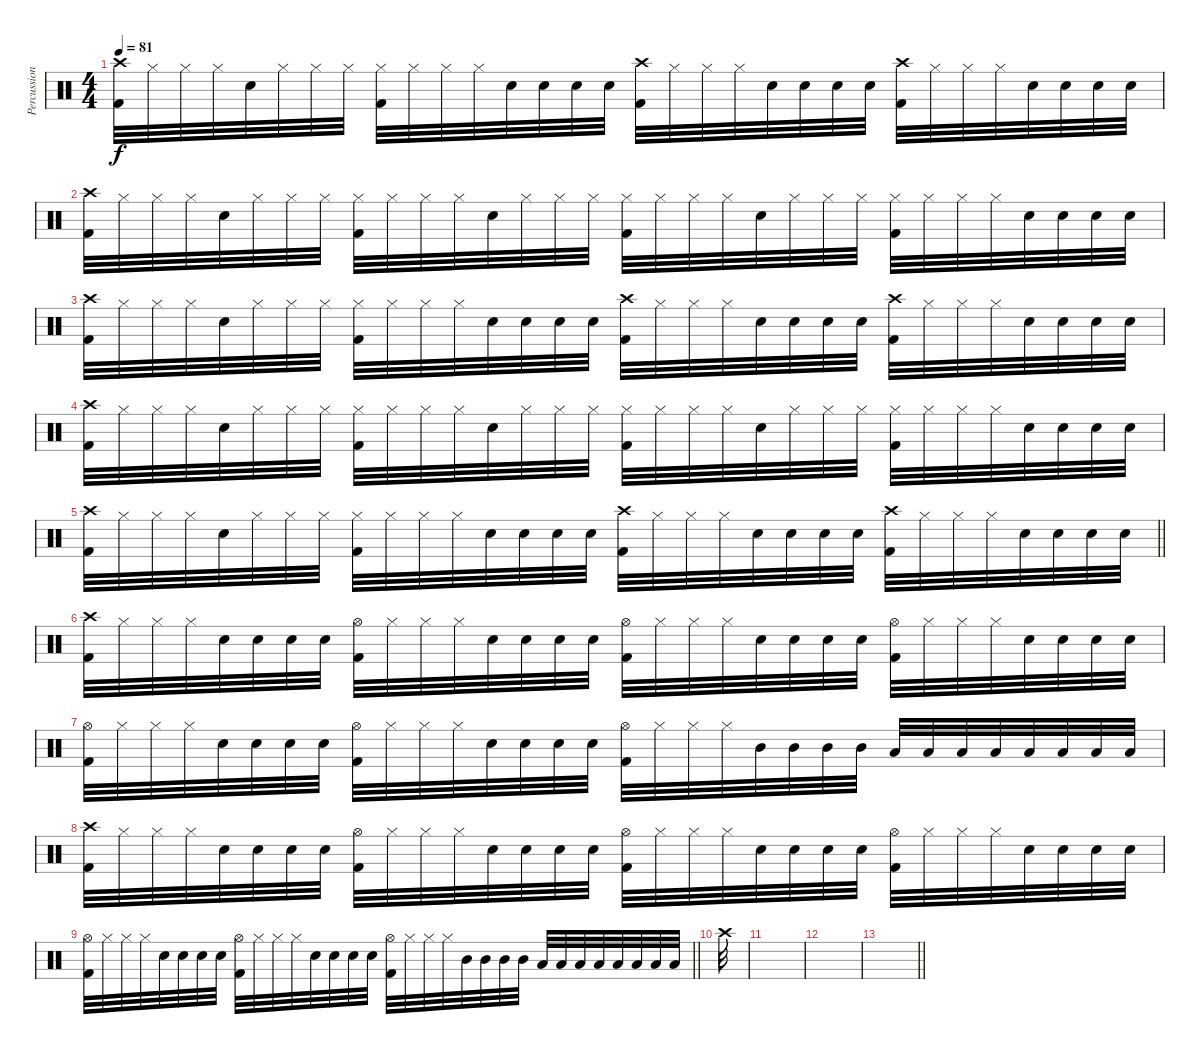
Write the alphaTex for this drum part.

\track ("Percussion" "Percussion") {instrument percussion}
\staff {score}
\articulation defaults
\ts (4 4)
\tempo 81
\clef neutral
\ks c
("Crash high (hit)" "Kick (hit) 2").32{dy f} "Hi-Hat (closed)".32 "Hi-Hat (closed)".32 "Hi-Hat (closed)".32 "Snare (hit) 2".32 "Hi-Hat (closed)".32 "Hi-Hat (closed)".32 "Hi-Hat (closed)".32 ("Hi-Hat (closed)" "Kick (hit) 2").32 "Hi-Hat (closed)".32 "Hi-Hat (closed)".32 "Hi-Hat (closed)".32 "Snare (hit) 2".32 "Snare (hit) 2".32 "Snare (hit) 2".32 "Snare (hit) 2".32 ("Crash high (hit)" "Kick (hit) 2").32 "Hi-Hat (closed)".32 "Hi-Hat (closed)".32 "Hi-Hat (closed)".32 "Snare (hit) 2".32 "Snare (hit) 2".32 "Snare (hit) 2".32 "Snare (hit) 2".32 ("Crash high (hit)" "Kick (hit) 2").32 "Hi-Hat (closed)".32 "Hi-Hat (closed)".32 "Hi-Hat (closed)".32 "Snare (hit) 2".32 "Snare (hit) 2".32 "Snare (hit) 2".32 "Snare (hit) 2".32 |
("Crash high (hit)" "Kick (hit) 2").32 "Hi-Hat (closed)".32 "Hi-Hat (closed)".32 "Hi-Hat (closed)".32 "Snare (hit) 2".32 "Hi-Hat (closed)".32 "Hi-Hat (closed)".32 "Hi-Hat (closed)".32 ("Hi-Hat (closed)" "Kick (hit) 2").32 "Hi-Hat (closed)".32 "Hi-Hat (closed)".32 "Hi-Hat (closed)".32 "Snare (hit) 2".32 "Hi-Hat (closed)".32 "Hi-Hat (closed)".32 "Hi-Hat (closed)".32 ("Hi-Hat (closed)" "Kick (hit) 2").32 "Hi-Hat (closed)".32 "Hi-Hat (closed)".32 "Hi-Hat (closed)".32 "Snare (hit) 2".32 "Hi-Hat (closed)".32 "Hi-Hat (closed)".32 "Hi-Hat (closed)".32 ("Hi-Hat (closed)" "Kick (hit) 2").32 "Hi-Hat (closed)".32 "Hi-Hat (closed)".32 "Hi-Hat (closed)".32 "Snare (hit) 2".32 "Snare (hit) 2".32 "Snare (hit) 2".32 "Snare (hit) 2".32 |
("Crash high (hit)" "Kick (hit) 2").32 "Hi-Hat (closed)".32 "Hi-Hat (closed)".32 "Hi-Hat (closed)".32 "Snare (hit) 2".32 "Hi-Hat (closed)".32 "Hi-Hat (closed)".32 "Hi-Hat (closed)".32 ("Hi-Hat (closed)" "Kick (hit) 2").32 "Hi-Hat (closed)".32 "Hi-Hat (closed)".32 "Hi-Hat (closed)".32 "Snare (hit) 2".32 "Snare (hit) 2".32 "Snare (hit) 2".32 "Snare (hit) 2".32 ("Crash high (hit)" "Kick (hit) 2").32 "Hi-Hat (closed)".32 "Hi-Hat (closed)".32 "Hi-Hat (closed)".32 "Snare (hit) 2".32 "Snare (hit) 2".32 "Snare (hit) 2".32 "Snare (hit) 2".32 ("Crash high (hit)" "Kick (hit) 2").32 "Hi-Hat (closed)".32 "Hi-Hat (closed)".32 "Hi-Hat (closed)".32 "Snare (hit) 2".32 "Snare (hit) 2".32 "Snare (hit) 2".32 "Snare (hit) 2".32 |
("Crash high (hit)" "Kick (hit) 2").32 "Hi-Hat (closed)".32 "Hi-Hat (closed)".32 "Hi-Hat (closed)".32 "Snare (hit) 2".32 "Hi-Hat (closed)".32 "Hi-Hat (closed)".32 "Hi-Hat (closed)".32 ("Hi-Hat (closed)" "Kick (hit) 2").32 "Hi-Hat (closed)".32 "Hi-Hat (closed)".32 "Hi-Hat (closed)".32 "Snare (hit) 2".32 "Hi-Hat (closed)".32 "Hi-Hat (closed)".32 "Hi-Hat (closed)".32 ("Hi-Hat (closed)" "Kick (hit) 2").32 "Hi-Hat (closed)".32 "Hi-Hat (closed)".32 "Hi-Hat (closed)".32 "Snare (hit) 2".32 "Hi-Hat (closed)".32 "Hi-Hat (closed)".32 "Hi-Hat (closed)".32 ("Hi-Hat (closed)" "Kick (hit) 2").32 "Hi-Hat (closed)".32 "Hi-Hat (closed)".32 "Hi-Hat (closed)".32 "Snare (hit) 2".32 "Snare (hit) 2".32 "Snare (hit) 2".32 "Snare (hit) 2".32 |
\barLineRight lightlight
("Crash high (hit)" "Kick (hit) 2").32 "Hi-Hat (closed)".32 "Hi-Hat (closed)".32 "Hi-Hat (closed)".32 "Snare (hit) 2".32 "Hi-Hat (closed)".32 "Hi-Hat (closed)".32 "Hi-Hat (closed)".32 ("Hi-Hat (closed)" "Kick (hit) 2").32 "Hi-Hat (closed)".32 "Hi-Hat (closed)".32 "Hi-Hat (closed)".32 "Snare (hit) 2".32 "Snare (hit) 2".32 "Snare (hit) 2".32 "Snare (hit) 2".32 ("Crash high (hit)" "Kick (hit) 2").32 "Hi-Hat (closed)".32 "Hi-Hat (closed)".32 "Hi-Hat (closed)".32 "Snare (hit) 2".32 "Snare (hit) 2".32 "Snare (hit) 2".32 "Snare (hit) 2".32 ("Crash high (hit)" "Kick (hit) 2").32 "Hi-Hat (closed)".32 "Hi-Hat (closed)".32 "Hi-Hat (closed)".32 "Snare (hit) 2".32 "Snare (hit) 2".32 "Snare (hit) 2".32 "Snare (hit) 2".32 |
("Crash high (hit)" "Kick (hit) 2").32 "Hi-Hat (closed)".32 "Hi-Hat (closed)".32 "Hi-Hat (closed)".32 "Snare (hit) 2".32 "Snare (hit) 2".32 "Snare (hit) 2".32 "Snare (hit) 2".32 ("Hi-Hat (open)" "Kick (hit) 2").32 "Hi-Hat (closed)".32 "Hi-Hat (closed)".32 "Hi-Hat (closed)".32 "Snare (hit) 2".32 "Snare (hit) 2".32 "Snare (hit) 2".32 "Snare (hit) 2".32 ("Hi-Hat (open)" "Kick (hit) 2").32 "Hi-Hat (closed)".32 "Hi-Hat (closed)".32 "Hi-Hat (closed)".32 "Snare (hit) 2".32 "Snare (hit) 2".32 "Snare (hit) 2".32 "Snare (hit) 2".32 ("Hi-Hat (open)" "Kick (hit) 2").32 "Hi-Hat (closed)".32 "Hi-Hat (closed)".32 "Hi-Hat (closed)".32 "Snare (hit) 2".32 "Snare (hit) 2".32 "Snare (hit) 2".32 "Snare (hit) 2".32 |
("Hi-Hat (open)" "Kick (hit) 2").32 "Hi-Hat (closed)".32 "Hi-Hat (closed)".32 "Hi-Hat (closed)".32 "Snare (hit) 2".32 "Snare (hit) 2".32 "Snare (hit) 2".32 "Snare (hit) 2".32 ("Hi-Hat (open)" "Kick (hit) 2").32 "Hi-Hat (closed)".32 "Hi-Hat (closed)".32 "Hi-Hat (closed)".32 "Snare (hit) 2".32 "Snare (hit) 2".32 "Snare (hit) 2".32 "Snare (hit) 2".32 ("Hi-Hat (open)" "Kick (hit) 2").32 "Hi-Hat (closed)".32 "Hi-Hat (closed)".32 "Hi-Hat (closed)".32 "Mid Tom (hit)".32 "Mid Tom (hit)".32 "Mid Tom (hit)".32 "Mid Tom (hit)".32 "Low Tom (hit)".32 "Low Tom (hit)".32 "Low Tom (hit)".32 "Low Tom (hit)".32 "Low Floor Tom (hit)".32 "Low Floor Tom (hit)".32 "Low Floor Tom (hit)".32 "Low Floor Tom (hit)".32 |
("Crash high (hit)" "Kick (hit) 2").32 "Hi-Hat (closed)".32 "Hi-Hat (closed)".32 "Hi-Hat (closed)".32 "Snare (hit) 2".32 "Snare (hit) 2".32 "Snare (hit) 2".32 "Snare (hit) 2".32 ("Hi-Hat (open)" "Kick (hit) 2").32 "Hi-Hat (closed)".32 "Hi-Hat (closed)".32 "Hi-Hat (closed)".32 "Snare (hit) 2".32 "Snare (hit) 2".32 "Snare (hit) 2".32 "Snare (hit) 2".32 ("Hi-Hat (open)" "Kick (hit) 2").32 "Hi-Hat (closed)".32 "Hi-Hat (closed)".32 "Hi-Hat (closed)".32 "Snare (hit) 2".32 "Snare (hit) 2".32 "Snare (hit) 2".32 "Snare (hit) 2".32 ("Hi-Hat (open)" "Kick (hit) 2").32 "Hi-Hat (closed)".32 "Hi-Hat (closed)".32 "Hi-Hat (closed)".32 "Snare (hit) 2".32 "Snare (hit) 2".32 "Snare (hit) 2".32 "Snare (hit) 2".32 |
\barLineRight lightlight
("Hi-Hat (open)" "Kick (hit) 2").32 "Hi-Hat (closed)".32 "Hi-Hat (closed)".32 "Hi-Hat (closed)".32 "Snare (hit) 2".32 "Snare (hit) 2".32 "Snare (hit) 2".32 "Snare (hit) 2".32 ("Hi-Hat (open)" "Kick (hit) 2").32 "Hi-Hat (closed)".32 "Hi-Hat (closed)".32 "Hi-Hat (closed)".32 "Snare (hit) 2".32 "Snare (hit) 2".32 "Snare (hit) 2".32 "Snare (hit) 2".32 ("Hi-Hat (open)" "Kick (hit) 2").32 "Hi-Hat (closed)".32 "Hi-Hat (closed)".32 "Hi-Hat (closed)".32 "Mid Tom (hit)".32 "Mid Tom (hit)".32 "Mid Tom (hit)".32 "Mid Tom (hit)".32 "Low Tom (hit)".32 "Low Tom (hit)".32 "Low Tom (hit)".32 "Low Tom (hit)".32 "Low Floor Tom (hit)".32 "Low Floor Tom (hit)".32 "Low Floor Tom (hit)".32 "Low Floor Tom (hit)".32 |
"Crash high (hit)".32 |
|
|
\barLineRight lightlight
